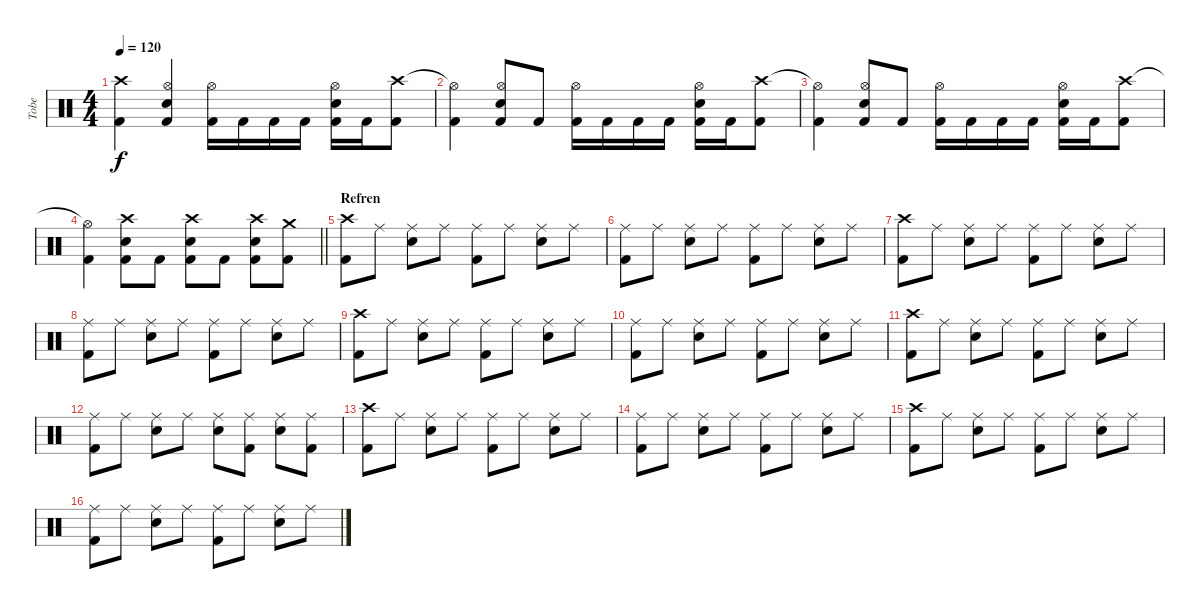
\track ("Tobe" "Tobe") {instrument percussion}
\staff {score}
\articulation defaults
\ts (4 4)
\tempo 120
\clef neutral
\ks c
("Crash high (hit)" "Kick (hit) 2").4{dy f} ("Hi-Hat (open)" "Snare (hit) 2" "Kick (hit) 2").4 ("Hi-Hat (open)" "Kick (hit) 2").16 "Kick (hit) 2".16 "Kick (hit) 2".16 "Kick (hit) 2".16 ("Hi-Hat (open)" "Snare (hit) 2" "Kick (hit) 2").16 "Kick (hit) 2".16 ("Crash high (hit)" "Kick (hit) 2").8 |
("Hi-Hat (open)"{t} "Kick (hit) 2").4 ("Hi-Hat (open)" "Snare (hit) 2" "Kick (hit) 2").8 "Kick (hit) 2".8 ("Hi-Hat (open)" "Kick (hit) 2").16 "Kick (hit) 2".16 "Kick (hit) 2".16 "Kick (hit) 2".16 ("Hi-Hat (open)" "Snare (hit) 2" "Kick (hit) 2").16 "Kick (hit) 2".16 ("Crash high (hit)" "Kick (hit) 2").8 |
("Hi-Hat (open)"{t} "Kick (hit) 2").4 ("Hi-Hat (open)" "Snare (hit) 2" "Kick (hit) 2").8 "Kick (hit) 2".8 ("Hi-Hat (open)" "Kick (hit) 2").16 "Kick (hit) 2".16 "Kick (hit) 2".16 "Kick (hit) 2".16 ("Hi-Hat (open)" "Snare (hit) 2" "Kick (hit) 2").16 "Kick (hit) 2".16 ("Crash high (hit)" "Kick (hit) 2").8 |
\barLineRight lightlight
("Hi-Hat (open)"{t} "Kick (hit) 2").4 ("Crash high (hit)" "Snare (hit) 2" "Kick (hit) 2").8 "Kick (hit) 2".8 ("Crash high (hit)" "Snare (hit) 2" "Kick (hit) 2").8 "Kick (hit) 2".8 ("Crash high (hit)" "Snare (hit) 2" "Kick (hit) 2").8 ("Crash medium (hit)" "Kick (hit) 2").8 |
\section ("" "Refren")
("Crash high (hit)" "Kick (hit) 2").8 "Ride (middle)".8 ("Ride (middle)" "Snare (hit) 2").8 "Ride (middle)".8 ("Ride (middle)" "Kick (hit) 2").8 "Ride (middle)".8 ("Ride (middle)" "Snare (hit) 2").8 "Ride (middle)".8 |
("Ride (middle)" "Kick (hit) 2").8 "Ride (middle)".8 ("Ride (middle)" "Snare (hit) 2").8 "Ride (middle)".8 ("Ride (middle)" "Kick (hit) 2").8 "Ride (middle)".8 ("Ride (middle)" "Snare (hit) 2").8 "Ride (middle)".8 |
("Crash high (hit)" "Kick (hit) 2").8 "Ride (middle)".8 ("Ride (middle)" "Snare (hit) 2").8 "Ride (middle)".8 ("Ride (middle)" "Kick (hit) 2").8 "Ride (middle)".8 ("Ride (middle)" "Snare (hit) 2").8 "Ride (middle)".8 |
("Ride (middle)" "Kick (hit) 2").8 "Ride (middle)".8 ("Ride (middle)" "Snare (hit) 2").8 "Ride (middle)".8 ("Ride (middle)" "Kick (hit) 2").8 "Ride (middle)".8 ("Ride (middle)" "Snare (hit) 2").8 "Ride (middle)".8 |
("Crash high (hit)" "Kick (hit) 2").8 "Ride (middle)".8 ("Ride (middle)" "Snare (hit) 2").8 "Ride (middle)".8 ("Ride (middle)" "Kick (hit) 2").8 "Ride (middle)".8 ("Ride (middle)" "Snare (hit) 2").8 "Ride (middle)".8 |
("Ride (middle)" "Kick (hit) 2").8 "Ride (middle)".8 ("Ride (middle)" "Snare (hit) 2").8 "Ride (middle)".8 ("Ride (middle)" "Kick (hit) 2").8 "Ride (middle)".8 ("Ride (middle)" "Snare (hit) 2").8 "Ride (middle)".8 |
("Crash high (hit)" "Kick (hit) 2").8 "Ride (middle)".8 ("Ride (middle)" "Snare (hit) 2").8 "Ride (middle)".8 ("Ride (middle)" "Kick (hit) 2").8 "Ride (middle)".8 ("Ride (middle)" "Snare (hit) 2").8 "Ride (middle)".8 |
("Ride (middle)" "Kick (hit) 2").8 "Ride (middle)".8 ("Ride (middle)" "Snare (hit) 2").8 "Ride (middle)".8 ("Ride (middle)" "Snare (hit) 2").8 ("Ride (middle)" "Kick (hit) 2").8 ("Ride (middle)" "Snare (hit) 2").8 ("Ride (middle)" "Kick (hit) 2").8 |
("Crash high (hit)" "Kick (hit) 2").8 "Ride (middle)".8 ("Ride (middle)" "Snare (hit) 2").8 "Ride (middle)".8 ("Ride (middle)" "Kick (hit) 2").8 "Ride (middle)".8 ("Ride (middle)" "Snare (hit) 2").8 "Ride (middle)".8 |
("Ride (middle)" "Kick (hit) 2").8 "Ride (middle)".8 ("Ride (middle)" "Snare (hit) 2").8 "Ride (middle)".8 ("Ride (middle)" "Kick (hit) 2").8 "Ride (middle)".8 ("Ride (middle)" "Snare (hit) 2").8 "Ride (middle)".8 |
("Crash high (hit)" "Kick (hit) 2").8 "Ride (middle)".8 ("Ride (middle)" "Snare (hit) 2").8 "Ride (middle)".8 ("Ride (middle)" "Kick (hit) 2").8 "Ride (middle)".8 ("Ride (middle)" "Snare (hit) 2").8 "Ride (middle)".8 |
("Ride (middle)" "Kick (hit) 2").8 "Ride (middle)".8 ("Ride (middle)" "Snare (hit) 2").8 "Ride (middle)".8 ("Ride (middle)" "Kick (hit) 2").8 "Ride (middle)".8 ("Ride (middle)" "Snare (hit) 2").8 "Ride (middle)".8
